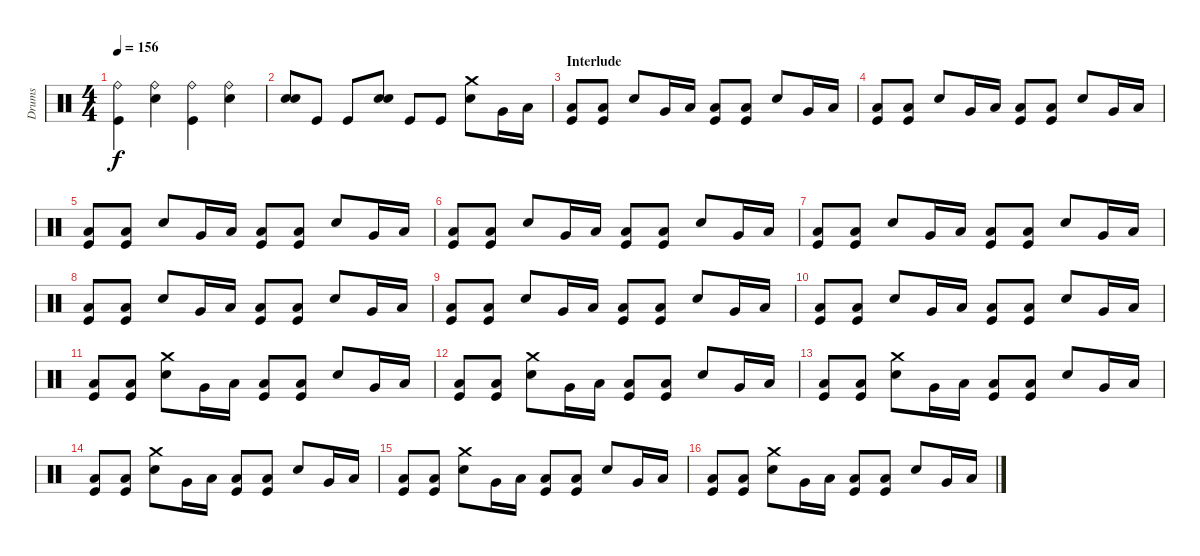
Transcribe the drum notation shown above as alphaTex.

\track ("Drums" "Drums") {instrument percussion}
\staff {score}
\articulation defaults
\ts (4 4)
\tempo 156
\clef neutral
\ks c
("Ride (bell)" "Kick (hit)").4{dy f} ("Ride (bell)" "Electric Snare (hit)").4 ("Ride (bell)" "Kick (hit)").4 ("Ride (bell)" "Electric Snare (hit)").4 |
("Electric Snare (hit)" "Electric Snare (hit)").8 "Kick (hit)".8 "Kick (hit)".8 ("Electric Snare (hit)" "Electric Snare (hit)").8 "Kick (hit)".8 "Kick (hit)".8 ("Electric Snare (hit)" "Crash medium (hit)").8 "Very Low Tom (hit)".16 "Low Floor Tom (hit)".16 |
\section ("" "Interlude")
("Low Floor Tom (hit)" "Kick (hit)").8 ("Low Floor Tom (hit)" "Kick (hit)").8 "Electric Snare (hit)".8 "Very Low Tom (hit)".16 "Low Floor Tom (hit)".16 ("Low Floor Tom (hit)" "Kick (hit)").8 ("Low Floor Tom (hit)" "Kick (hit)").8 "Electric Snare (hit)".8 "Very Low Tom (hit)".16 "Low Floor Tom (hit)".16 |
("Low Floor Tom (hit)" "Kick (hit)").8 ("Low Floor Tom (hit)" "Kick (hit)").8 "Electric Snare (hit)".8 "Very Low Tom (hit)".16 "Low Floor Tom (hit)".16 ("Low Floor Tom (hit)" "Kick (hit)").8 ("Low Floor Tom (hit)" "Kick (hit)").8 "Electric Snare (hit)".8 "Very Low Tom (hit)".16 "Low Floor Tom (hit)".16 |
("Low Floor Tom (hit)" "Kick (hit)").8 ("Low Floor Tom (hit)" "Kick (hit)").8 "Electric Snare (hit)".8 "Very Low Tom (hit)".16 "Low Floor Tom (hit)".16 ("Low Floor Tom (hit)" "Kick (hit)").8 ("Low Floor Tom (hit)" "Kick (hit)").8 "Electric Snare (hit)".8 "Very Low Tom (hit)".16 "Low Floor Tom (hit)".16 |
("Low Floor Tom (hit)" "Kick (hit)").8 ("Low Floor Tom (hit)" "Kick (hit)").8 "Electric Snare (hit)".8 "Very Low Tom (hit)".16 "Low Floor Tom (hit)".16 ("Low Floor Tom (hit)" "Kick (hit)").8 ("Low Floor Tom (hit)" "Kick (hit)").8 "Electric Snare (hit)".8 "Very Low Tom (hit)".16 "Low Floor Tom (hit)".16 |
("Low Floor Tom (hit)" "Kick (hit)").8 ("Low Floor Tom (hit)" "Kick (hit)").8 "Electric Snare (hit)".8 "Very Low Tom (hit)".16 "Low Floor Tom (hit)".16 ("Low Floor Tom (hit)" "Kick (hit)").8 ("Low Floor Tom (hit)" "Kick (hit)").8 "Electric Snare (hit)".8 "Very Low Tom (hit)".16 "Low Floor Tom (hit)".16 |
("Low Floor Tom (hit)" "Kick (hit)").8 ("Low Floor Tom (hit)" "Kick (hit)").8 "Electric Snare (hit)".8 "Very Low Tom (hit)".16 "Low Floor Tom (hit)".16 ("Low Floor Tom (hit)" "Kick (hit)").8 ("Low Floor Tom (hit)" "Kick (hit)").8 "Electric Snare (hit)".8 "Very Low Tom (hit)".16 "Low Floor Tom (hit)".16 |
("Low Floor Tom (hit)" "Kick (hit)").8 ("Low Floor Tom (hit)" "Kick (hit)").8 "Electric Snare (hit)".8 "Very Low Tom (hit)".16 "Low Floor Tom (hit)".16 ("Low Floor Tom (hit)" "Kick (hit)").8 ("Low Floor Tom (hit)" "Kick (hit)").8 "Electric Snare (hit)".8 "Very Low Tom (hit)".16 "Low Floor Tom (hit)".16 |
("Low Floor Tom (hit)" "Kick (hit)").8 ("Low Floor Tom (hit)" "Kick (hit)").8 "Electric Snare (hit)".8 "Very Low Tom (hit)".16 "Low Floor Tom (hit)".16 ("Low Floor Tom (hit)" "Kick (hit)").8 ("Low Floor Tom (hit)" "Kick (hit)").8 "Electric Snare (hit)".8 "Very Low Tom (hit)".16 "Low Floor Tom (hit)".16 |
("Low Floor Tom (hit)" "Kick (hit)").8 ("Low Floor Tom (hit)" "Kick (hit)").8 ("Crash medium (hit)" "Electric Snare (hit)").8 "Very Low Tom (hit)".16 "Low Floor Tom (hit)".16 ("Low Floor Tom (hit)" "Kick (hit)").8 ("Low Floor Tom (hit)" "Kick (hit)").8 "Electric Snare (hit)".8 "Very Low Tom (hit)".16 "Low Floor Tom (hit)".16 |
("Low Floor Tom (hit)" "Kick (hit)").8 ("Low Floor Tom (hit)" "Kick (hit)").8 ("Crash medium (hit)" "Electric Snare (hit)").8 "Very Low Tom (hit)".16 "Low Floor Tom (hit)".16 ("Low Floor Tom (hit)" "Kick (hit)").8 ("Low Floor Tom (hit)" "Kick (hit)").8 "Electric Snare (hit)".8 "Very Low Tom (hit)".16 "Low Floor Tom (hit)".16 |
("Low Floor Tom (hit)" "Kick (hit)").8 ("Low Floor Tom (hit)" "Kick (hit)").8 ("Crash medium (hit)" "Electric Snare (hit)").8 "Very Low Tom (hit)".16 "Low Floor Tom (hit)".16 ("Low Floor Tom (hit)" "Kick (hit)").8 ("Low Floor Tom (hit)" "Kick (hit)").8 "Electric Snare (hit)".8 "Very Low Tom (hit)".16 "Low Floor Tom (hit)".16 |
("Low Floor Tom (hit)" "Kick (hit)").8 ("Low Floor Tom (hit)" "Kick (hit)").8 ("Crash medium (hit)" "Electric Snare (hit)").8 "Very Low Tom (hit)".16 "Low Floor Tom (hit)".16 ("Low Floor Tom (hit)" "Kick (hit)").8 ("Low Floor Tom (hit)" "Kick (hit)").8 "Electric Snare (hit)".8 "Very Low Tom (hit)".16 "Low Floor Tom (hit)".16 |
("Low Floor Tom (hit)" "Kick (hit)").8 ("Low Floor Tom (hit)" "Kick (hit)").8 ("Crash medium (hit)" "Electric Snare (hit)").8 "Very Low Tom (hit)".16 "Low Floor Tom (hit)".16 ("Low Floor Tom (hit)" "Kick (hit)").8 ("Low Floor Tom (hit)" "Kick (hit)").8 "Electric Snare (hit)".8 "Very Low Tom (hit)".16 "Low Floor Tom (hit)".16 |
("Low Floor Tom (hit)" "Kick (hit)").8 ("Low Floor Tom (hit)" "Kick (hit)").8 ("Crash medium (hit)" "Electric Snare (hit)").8 "Very Low Tom (hit)".16 "Low Floor Tom (hit)".16 ("Low Floor Tom (hit)" "Kick (hit)").8 ("Low Floor Tom (hit)" "Kick (hit)").8 "Electric Snare (hit)".8 "Very Low Tom (hit)".16 "Low Floor Tom (hit)".16
